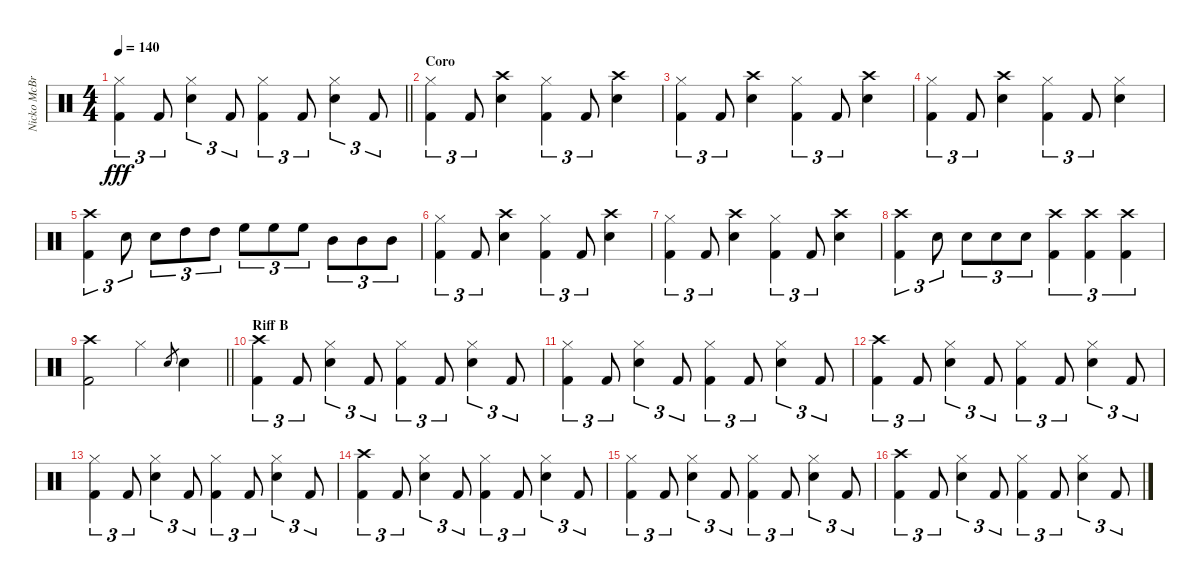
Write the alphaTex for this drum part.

\track ("Nicko McBrain" "Nicko McBr") {instrument percussion}
\staff {score}
\articulation defaults
\ts (4 4)
\tempo 140
\clef neutral
\barLineRight lightlight
\ks c
("Kick (hit) 2" "Hi-Hat (closed)").4{tu (3 2) dy fff} "Kick (hit) 2".8{tu (3 2)} ("Hi-Hat (closed)" "Snare (hit) 2").4{tu (3 2)} "Kick (hit) 2".8{tu (3 2)} ("Kick (hit) 2" "Hi-Hat (closed)").4{tu (3 2)} "Kick (hit) 2".8{tu (3 2)} ("Hi-Hat (closed)" "Snare (hit) 2").4{tu (3 2)} "Kick (hit) 2".8{tu (3 2)} |
\section ("" "Coro")
("Hi-Hat (closed)" "Kick (hit) 2").4{tu (3 2)} "Kick (hit) 2".8{tu (3 2)} ("Crash high (hit)" "Snare (hit) 2").4 ("Hi-Hat (closed)" "Kick (hit) 2").4{tu (3 2)} "Kick (hit) 2".8{tu (3 2)} ("Crash high (hit)" "Snare (hit) 2").4 |
("Hi-Hat (closed)" "Kick (hit) 2").4{tu (3 2)} "Kick (hit) 2".8{tu (3 2)} ("Crash high (hit)" "Snare (hit) 2").4 ("Hi-Hat (closed)" "Kick (hit) 2").4{tu (3 2)} "Kick (hit) 2".8{tu (3 2)} ("Crash high (hit)" "Snare (hit) 2").4 |
("Hi-Hat (closed)" "Kick (hit) 2").4{tu (3 2)} "Kick (hit) 2".8{tu (3 2)} ("Crash high (hit)" "Snare (hit) 2").4 ("Hi-Hat (closed)" "Kick (hit) 2").4{tu (3 2)} "Kick (hit) 2".8{tu (3 2)} ("Hi-Hat (closed)" "Snare (hit) 2").4 |
("Crash high (hit)" "Kick (hit) 2").4{tu (3 2)} "Snare (hit) 2".8{tu (3 2)} "Snare (hit) 2".8{tu (3 2)} "High Tom (hit)".8{tu (3 2)} "High Tom (hit)".8{tu (3 2)} "High Floor Tom (hit)".8{tu (3 2)} "High Floor Tom (hit)".8{tu (3 2)} "High Floor Tom (hit)".8{tu (3 2)} "Mid Tom (hit)".8{tu (3 2)} "Mid Tom (hit)".8{tu (3 2)} "Mid Tom (hit)".8{tu (3 2)} |
("Hi-Hat (closed)" "Kick (hit) 2").4{tu (3 2)} "Kick (hit) 2".8{tu (3 2)} ("Crash high (hit)" "Snare (hit) 2").4 ("Hi-Hat (closed)" "Kick (hit) 2").4{tu (3 2)} "Kick (hit) 2".8{tu (3 2)} ("Crash high (hit)" "Snare (hit) 2").4 |
("Hi-Hat (closed)" "Kick (hit) 2").4{tu (3 2)} "Kick (hit) 2".8{tu (3 2)} ("Crash high (hit)" "Snare (hit) 2").4 ("Hi-Hat (closed)" "Kick (hit) 2").4{tu (3 2)} "Kick (hit) 2".8{tu (3 2)} ("Crash high (hit)" "Snare (hit) 2").4 |
("Kick (hit) 2" "Crash high (hit)").4{tu (3 2)} "Snare (hit) 2".8{tu (3 2)} "Snare (hit) 2".8{tu (3 2)} "Snare (hit) 2".8{tu (3 2)} "Snare (hit) 2".8{tu (3 2)} ("Kick (hit) 2" "Crash high (hit)").4{tu (3 2)} ("Kick (hit) 2" "Crash high (hit)").4{tu (3 2)} ("Kick (hit) 2" "Crash high (hit)").4{tu (3 2)} |
\barLineRight lightlight
("Crash high (hit)" "Kick (hit) 2").2 "Hi-Hat (closed)".4 "Snare (hit) 2".8{gr} "Snare (hit) 2".4 |
\section ("" "Riff B")
("Crash high (hit)" "Kick (hit) 2").4{tu (3 2)} "Kick (hit) 2".8{tu (3 2)} ("Hi-Hat (closed)" "Snare (hit) 2").4{tu (3 2)} "Kick (hit) 2".8{tu (3 2)} ("Kick (hit) 2" "Hi-Hat (closed)").4{tu (3 2)} "Kick (hit) 2".8{tu (3 2)} ("Hi-Hat (closed)" "Snare (hit) 2").4{tu (3 2)} "Kick (hit) 2".8{tu (3 2)} |
("Kick (hit) 2" "Hi-Hat (closed)").4{tu (3 2)} "Kick (hit) 2".8{tu (3 2)} ("Hi-Hat (closed)" "Snare (hit) 2").4{tu (3 2)} "Kick (hit) 2".8{tu (3 2)} ("Kick (hit) 2" "Hi-Hat (closed)").4{tu (3 2)} "Kick (hit) 2".8{tu (3 2)} ("Hi-Hat (closed)" "Snare (hit) 2").4{tu (3 2)} "Kick (hit) 2".8{tu (3 2)} |
("Crash high (hit)" "Kick (hit) 2").4{tu (3 2)} "Kick (hit) 2".8{tu (3 2)} ("Hi-Hat (closed)" "Snare (hit) 2").4{tu (3 2)} "Kick (hit) 2".8{tu (3 2)} ("Kick (hit) 2" "Hi-Hat (closed)").4{tu (3 2)} "Kick (hit) 2".8{tu (3 2)} ("Hi-Hat (closed)" "Snare (hit) 2").4{tu (3 2)} "Kick (hit) 2".8{tu (3 2)} |
("Kick (hit) 2" "Hi-Hat (closed)").4{tu (3 2)} "Kick (hit) 2".8{tu (3 2)} ("Hi-Hat (closed)" "Snare (hit) 2").4{tu (3 2)} "Kick (hit) 2".8{tu (3 2)} ("Kick (hit) 2" "Hi-Hat (closed)").4{tu (3 2)} "Kick (hit) 2".8{tu (3 2)} ("Hi-Hat (closed)" "Snare (hit) 2").4{tu (3 2)} "Kick (hit) 2".8{tu (3 2)} |
("Crash high (hit)" "Kick (hit) 2").4{tu (3 2)} "Kick (hit) 2".8{tu (3 2)} ("Hi-Hat (closed)" "Snare (hit) 2").4{tu (3 2)} "Kick (hit) 2".8{tu (3 2)} ("Kick (hit) 2" "Hi-Hat (closed)").4{tu (3 2)} "Kick (hit) 2".8{tu (3 2)} ("Hi-Hat (closed)" "Snare (hit) 2").4{tu (3 2)} "Kick (hit) 2".8{tu (3 2)} |
("Kick (hit) 2" "Hi-Hat (closed)").4{tu (3 2)} "Kick (hit) 2".8{tu (3 2)} ("Hi-Hat (closed)" "Snare (hit) 2").4{tu (3 2)} "Kick (hit) 2".8{tu (3 2)} ("Kick (hit) 2" "Hi-Hat (closed)").4{tu (3 2)} "Kick (hit) 2".8{tu (3 2)} ("Hi-Hat (closed)" "Snare (hit) 2").4{tu (3 2)} "Kick (hit) 2".8{tu (3 2)} |
("Crash high (hit)" "Kick (hit) 2").4{tu (3 2)} "Kick (hit) 2".8{tu (3 2)} ("Hi-Hat (closed)" "Snare (hit) 2").4{tu (3 2)} "Kick (hit) 2".8{tu (3 2)} ("Kick (hit) 2" "Hi-Hat (closed)").4{tu (3 2)} "Kick (hit) 2".8{tu (3 2)} ("Hi-Hat (closed)" "Snare (hit) 2").4{tu (3 2)} "Kick (hit) 2".8{tu (3 2)}
